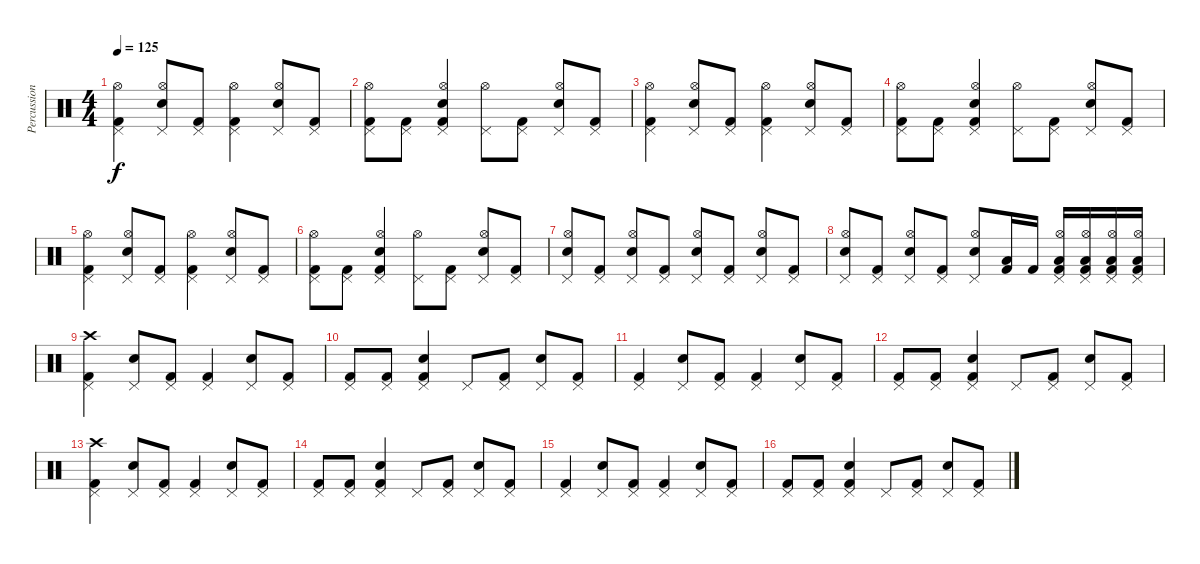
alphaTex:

\track ("Percussion" "Percussion") {instrument percussion}
\staff {score}
\articulation defaults
\ts (4 4)
\tempo 125
\clef neutral
\ks c
("Pedal Hi-Hat (hit)" "Kick (hit) 2" "Hi-Hat (open)").4{dy f} ("Pedal Hi-Hat (hit)" "Snare (hit) 2" "Hi-Hat (open)").8 ("Pedal Hi-Hat (hit)" "Kick (hit) 2").8 ("Pedal Hi-Hat (hit)" "Kick (hit) 2" "Hi-Hat (open)").4 ("Pedal Hi-Hat (hit)" "Snare (hit) 2" "Hi-Hat (open)").8 ("Pedal Hi-Hat (hit)" "Kick (hit) 2").8 |
("Pedal Hi-Hat (hit)" "Kick (hit) 2" "Hi-Hat (open)").8 ("Pedal Hi-Hat (hit)" "Kick (hit) 2").8 ("Pedal Hi-Hat (hit)" "Kick (hit) 2" "Snare (hit) 2" "Hi-Hat (open)").4 ("Pedal Hi-Hat (hit)" "Hi-Hat (open)").8 ("Pedal Hi-Hat (hit)" "Kick (hit) 2").8 ("Pedal Hi-Hat (hit)" "Snare (hit) 2" "Hi-Hat (open)").8 ("Pedal Hi-Hat (hit)" "Kick (hit) 2").8 |
("Pedal Hi-Hat (hit)" "Kick (hit) 2" "Hi-Hat (open)").4 ("Pedal Hi-Hat (hit)" "Snare (hit) 2" "Hi-Hat (open)").8 ("Pedal Hi-Hat (hit)" "Kick (hit) 2").8 ("Pedal Hi-Hat (hit)" "Kick (hit) 2" "Hi-Hat (open)").4 ("Pedal Hi-Hat (hit)" "Snare (hit) 2" "Hi-Hat (open)").8 ("Pedal Hi-Hat (hit)" "Kick (hit) 2").8 |
("Pedal Hi-Hat (hit)" "Kick (hit) 2" "Hi-Hat (open)").8 ("Pedal Hi-Hat (hit)" "Kick (hit) 2").8 ("Pedal Hi-Hat (hit)" "Kick (hit) 2" "Snare (hit) 2" "Hi-Hat (open)").4 ("Pedal Hi-Hat (hit)" "Hi-Hat (open)").8 ("Pedal Hi-Hat (hit)" "Kick (hit) 2").8 ("Pedal Hi-Hat (hit)" "Snare (hit) 2" "Hi-Hat (open)").8 ("Pedal Hi-Hat (hit)" "Kick (hit) 2").8 |
("Pedal Hi-Hat (hit)" "Kick (hit) 2" "Hi-Hat (open)").4 ("Pedal Hi-Hat (hit)" "Snare (hit) 2" "Hi-Hat (open)").8 ("Pedal Hi-Hat (hit)" "Kick (hit) 2").8 ("Pedal Hi-Hat (hit)" "Kick (hit) 2" "Hi-Hat (open)").4 ("Pedal Hi-Hat (hit)" "Snare (hit) 2" "Hi-Hat (open)").8 ("Pedal Hi-Hat (hit)" "Kick (hit) 2").8 |
("Pedal Hi-Hat (hit)" "Kick (hit) 2" "Hi-Hat (open)").8 ("Pedal Hi-Hat (hit)" "Kick (hit) 2").8 ("Pedal Hi-Hat (hit)" "Kick (hit) 2" "Snare (hit) 2" "Hi-Hat (open)").4 ("Pedal Hi-Hat (hit)" "Hi-Hat (open)").8 ("Pedal Hi-Hat (hit)" "Kick (hit) 2").8 ("Pedal Hi-Hat (hit)" "Snare (hit) 2" "Hi-Hat (open)").8 ("Pedal Hi-Hat (hit)" "Kick (hit) 2").8 |
("Pedal Hi-Hat (hit)" "Snare (hit) 2" "Hi-Hat (open)").8 ("Pedal Hi-Hat (hit)" "Kick (hit) 2").8 ("Pedal Hi-Hat (hit)" "Snare (hit) 2" "Hi-Hat (open)").8 ("Pedal Hi-Hat (hit)" "Kick (hit) 2").8 ("Pedal Hi-Hat (hit)" "Snare (hit) 2" "Hi-Hat (open)").8 ("Pedal Hi-Hat (hit)" "Kick (hit) 2").8 ("Pedal Hi-Hat (hit)" "Snare (hit) 2" "Hi-Hat (open)").8 ("Pedal Hi-Hat (hit)" "Kick (hit) 2").8 |
("Pedal Hi-Hat (hit)" "Snare (hit) 2" "Hi-Hat (open)").8 ("Pedal Hi-Hat (hit)" "Kick (hit) 2").8 ("Pedal Hi-Hat (hit)" "Snare (hit) 2" "Hi-Hat (open)").8 ("Pedal Hi-Hat (hit)" "Kick (hit) 2").8 ("Pedal Hi-Hat (hit)" "Snare (hit) 2" "Hi-Hat (open)").8 ("Low Tom (hit)" "Kick (hit) 2").16 "Kick (hit) 2".16 ("Hi-Hat (open)" "Low Tom (hit)" "Kick (hit) 2" "Pedal Hi-Hat (hit)").16 ("Hi-Hat (open)" "Low Tom (hit)" "Kick (hit) 2" "Pedal Hi-Hat (hit)").16 ("Hi-Hat (open)" "Low Tom (hit)" "Kick (hit) 2" "Pedal Hi-Hat (hit)").16 ("Hi-Hat (open)" "Low Tom (hit)" "Kick (hit) 2" "Pedal Hi-Hat (hit)").16 |
("Pedal Hi-Hat (hit)" "Kick (hit) 2" "Crash high (hit)").4 ("Pedal Hi-Hat (hit)" "Snare (hit) 2").8 ("Pedal Hi-Hat (hit)" "Kick (hit) 2").8 ("Pedal Hi-Hat (hit)" "Kick (hit) 2").4 ("Pedal Hi-Hat (hit)" "Snare (hit) 2").8 ("Pedal Hi-Hat (hit)" "Kick (hit) 2").8 |
("Pedal Hi-Hat (hit)" "Kick (hit) 2").8 ("Pedal Hi-Hat (hit)" "Kick (hit) 2").8 ("Pedal Hi-Hat (hit)" "Kick (hit) 2" "Snare (hit) 2").4 "Pedal Hi-Hat (hit)".8 ("Pedal Hi-Hat (hit)" "Kick (hit) 2").8 ("Pedal Hi-Hat (hit)" "Snare (hit) 2").8 ("Pedal Hi-Hat (hit)" "Kick (hit) 2").8 |
("Pedal Hi-Hat (hit)" "Kick (hit) 2").4 ("Pedal Hi-Hat (hit)" "Snare (hit) 2").8 ("Pedal Hi-Hat (hit)" "Kick (hit) 2").8 ("Pedal Hi-Hat (hit)" "Kick (hit) 2").4 ("Pedal Hi-Hat (hit)" "Snare (hit) 2").8 ("Pedal Hi-Hat (hit)" "Kick (hit) 2").8 |
("Pedal Hi-Hat (hit)" "Kick (hit) 2").8 ("Pedal Hi-Hat (hit)" "Kick (hit) 2").8 ("Pedal Hi-Hat (hit)" "Kick (hit) 2" "Snare (hit) 2").4 "Pedal Hi-Hat (hit)".8 ("Pedal Hi-Hat (hit)" "Kick (hit) 2").8 ("Pedal Hi-Hat (hit)" "Snare (hit) 2").8 ("Pedal Hi-Hat (hit)" "Kick (hit) 2").8 |
("Pedal Hi-Hat (hit)" "Kick (hit) 2" "Crash high (hit)").4 ("Pedal Hi-Hat (hit)" "Snare (hit) 2").8 ("Pedal Hi-Hat (hit)" "Kick (hit) 2").8 ("Pedal Hi-Hat (hit)" "Kick (hit) 2").4 ("Pedal Hi-Hat (hit)" "Snare (hit) 2").8 ("Pedal Hi-Hat (hit)" "Kick (hit) 2").8 |
("Pedal Hi-Hat (hit)" "Kick (hit) 2").8 ("Pedal Hi-Hat (hit)" "Kick (hit) 2").8 ("Pedal Hi-Hat (hit)" "Kick (hit) 2" "Snare (hit) 2").4 "Pedal Hi-Hat (hit)".8 ("Pedal Hi-Hat (hit)" "Kick (hit) 2").8 ("Pedal Hi-Hat (hit)" "Snare (hit) 2").8 ("Pedal Hi-Hat (hit)" "Kick (hit) 2").8 |
("Pedal Hi-Hat (hit)" "Kick (hit) 2").4 ("Pedal Hi-Hat (hit)" "Snare (hit) 2").8 ("Pedal Hi-Hat (hit)" "Kick (hit) 2").8 ("Pedal Hi-Hat (hit)" "Kick (hit) 2").4 ("Pedal Hi-Hat (hit)" "Snare (hit) 2").8 ("Pedal Hi-Hat (hit)" "Kick (hit) 2").8 |
("Pedal Hi-Hat (hit)" "Kick (hit) 2").8 ("Pedal Hi-Hat (hit)" "Kick (hit) 2").8 ("Pedal Hi-Hat (hit)" "Kick (hit) 2" "Snare (hit) 2").4 "Pedal Hi-Hat (hit)".8 ("Pedal Hi-Hat (hit)" "Kick (hit) 2").8 ("Pedal Hi-Hat (hit)" "Snare (hit) 2").8 ("Pedal Hi-Hat (hit)" "Kick (hit) 2").8
